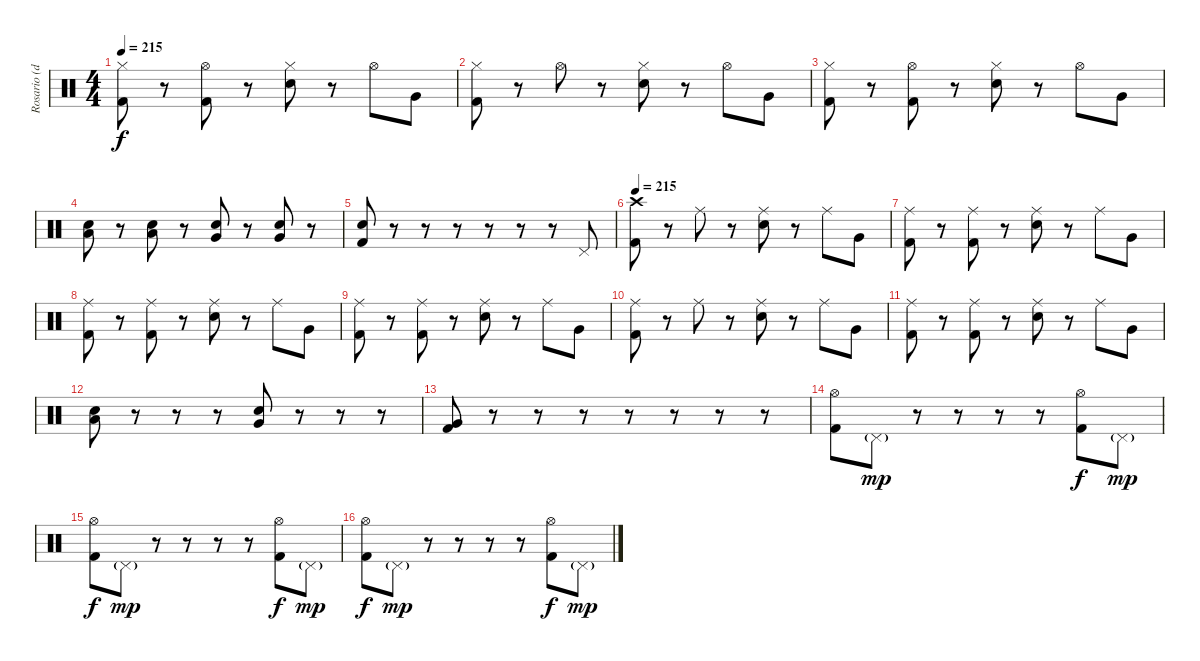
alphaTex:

\track ("Rosario (drum)" "Rosario (d") {instrument percussion}
\staff {score}
\articulation defaults
\ts (4 4)
\tempo 215
\clef neutral
\ks c
("Hi-Hat (closed)" "Kick (hit) 2").8{dy f} r.8 ("Hi-Hat (open)" "Kick (hit) 2").8 r.8 ("Hi-Hat (closed)" "Electric Snare (hit)").8 r.8 "Hi-Hat (open)".8 "Very Low Tom (hit)".8 |
("Hi-Hat (closed)" "Kick (hit) 2").8 r.8 "Hi-Hat (open)".8 r.8 ("Hi-Hat (closed)" "Electric Snare (hit)").8 r.8 "Hi-Hat (open)".8 "Very Low Tom (hit)".8 |
("Hi-Hat (closed)" "Kick (hit) 2").8 r.8 ("Hi-Hat (open)" "Kick (hit) 2").8 r.8 ("Hi-Hat (closed)" "Electric Snare (hit)").8 r.8 "Hi-Hat (open)".8 "Very Low Tom (hit)".8 |
("Low Tom (hit)" "Electric Snare (hit)").8 r.8 ("Low Tom (hit)" "Electric Snare (hit)").8 r.8 ("Very Low Tom (hit)" "Electric Snare (hit)").8 r.8 ("Very Low Tom (hit)" "Electric Snare (hit)").8 r.8 |
("Electric Snare (hit)" "Kick (hit) 2").8 r.8 r.8 r.8 r.8 r.8 r.8 "Pedal Hi-Hat (hit)".8 |
\tempo 215
("Crash high (hit)" "Kick (hit) 2").8 r.8 "Ride (middle)".8 r.8 ("Ride (middle)" "Electric Snare (hit)").8 r.8 "Ride (middle)".8 "Very Low Tom (hit)".8 |
("Ride (middle)" "Kick (hit) 2").8 r.8 ("Ride (middle)" "Kick (hit) 2").8 r.8 ("Ride (middle)" "Electric Snare (hit)").8 r.8 "Ride (middle)".8 "Very Low Tom (hit)".8 |
("Ride (middle)" "Kick (hit) 2").8 r.8 ("Ride (middle)" "Kick (hit) 2").8 r.8 ("Ride (middle)" "Electric Snare (hit)").8 r.8 "Ride (middle)".8 "Very Low Tom (hit)".8 |
("Ride (middle)" "Kick (hit) 2").8 r.8 ("Ride (middle)" "Kick (hit) 2").8 r.8 ("Ride (middle)" "Electric Snare (hit)").8 r.8 "Ride (middle)".8 "Very Low Tom (hit)".8 |
("Ride (middle)" "Kick (hit) 2").8 r.8 "Ride (middle)".8 r.8 ("Ride (middle)" "Electric Snare (hit)").8 r.8 "Ride (middle)".8 "Very Low Tom (hit)".8 |
("Ride (middle)" "Kick (hit) 2").8 r.8 ("Ride (middle)" "Kick (hit) 2").8 r.8 ("Ride (middle)" "Electric Snare (hit)").8 r.8 "Ride (middle)".8 "Very Low Tom (hit)".8 |
("Low Tom (hit)" "Electric Snare (hit)").8 r.8 r.8 r.8 ("Very Low Tom (hit)" "Electric Snare (hit)").8 r.8 r.8 r.8 |
("Very Low Tom (hit)" "Kick (hit) 2").8 r.8 r.8 r.8 r.8 r.8 r.8 r.8 |
("Hi-Hat (open)" "Kick (hit) 2").8 "Pedal Hi-Hat (hit)"{g}.8{dy mp} r.8 r.8 r.8 r.8 ("Hi-Hat (open)" "Kick (hit) 2").8{dy f} "Pedal Hi-Hat (hit)"{g}.8{dy mp} |
("Hi-Hat (open)" "Kick (hit) 2").8{dy f} "Pedal Hi-Hat (hit)"{g}.8{dy mp} r.8 r.8 r.8 r.8 ("Hi-Hat (open)" "Kick (hit) 2").8{dy f} "Pedal Hi-Hat (hit)"{g}.8{dy mp} |
("Hi-Hat (open)" "Kick (hit) 2").8{dy f} "Pedal Hi-Hat (hit)"{g}.8{dy mp} r.8 r.8 r.8 r.8 ("Hi-Hat (open)" "Kick (hit) 2").8{dy f} "Pedal Hi-Hat (hit)"{g}.8{dy mp}
